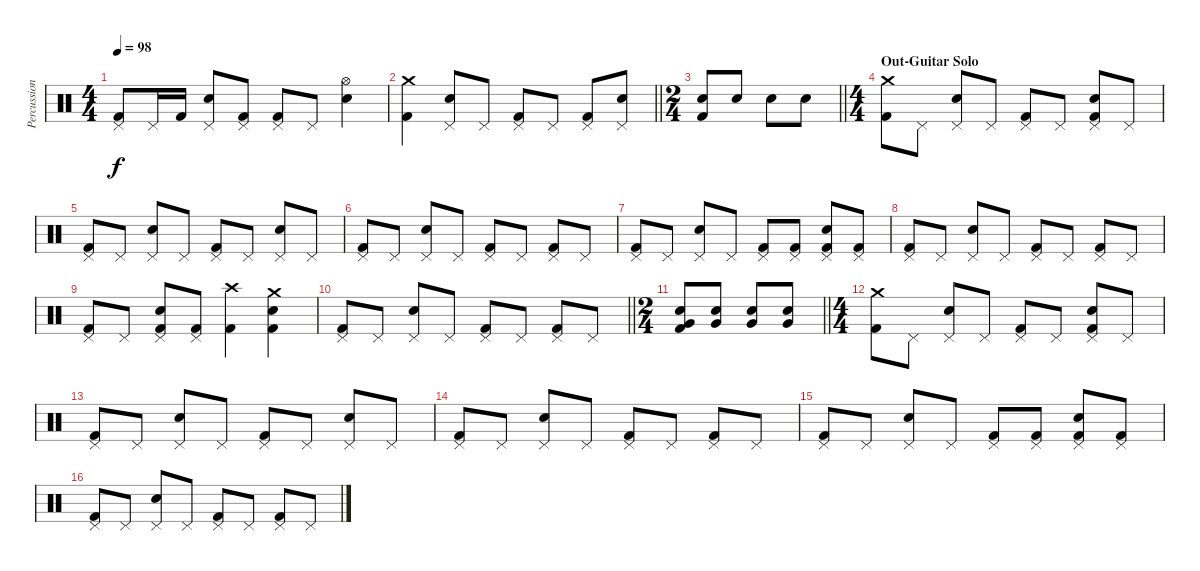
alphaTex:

\track ("Percussion" "Percussion") {instrument percussion}
\staff {score}
\articulation defaults
\ts (4 4)
\tempo 98
\clef neutral
\ks c
("Pedal Hi-Hat (hit)" "Kick (hit) 2").8{dy f} "Pedal Hi-Hat (hit)".16 "Kick (hit) 2".16 ("Pedal Hi-Hat (hit)" "Snare (hit) 2").8 ("Pedal Hi-Hat (hit)" "Kick (hit) 2").8 ("Pedal Hi-Hat (hit)" "Kick (hit) 2").8 "Pedal Hi-Hat (hit)".8 ("Hi-Hat (open)" "Snare (hit) 2").4 |
\barLineRight lightlight
("Crash medium (hit)" "Kick (hit) 2").4 ("Pedal Hi-Hat (hit)" "Snare (hit) 2").8 "Pedal Hi-Hat (hit)".8 ("Pedal Hi-Hat (hit)" "Kick (hit) 2").8 "Pedal Hi-Hat (hit)".8 ("Pedal Hi-Hat (hit)" "Kick (hit) 2").8 ("Pedal Hi-Hat (hit)" "Snare (hit) 2").8 |
\ts (2 4)
\barLineRight lightlight
("Snare (hit) 2" "Kick (hit) 2").8 "Snare (hit) 2".8 "Snare (hit) 2".8 "Snare (hit) 2".8 |
\ts (4 4)
\section ("" "Out-Guitar Solo")
("Crash medium (hit)" "Kick (hit) 2").8 "Pedal Hi-Hat (hit)".8 ("Pedal Hi-Hat (hit)" "Snare (hit) 2").8 "Pedal Hi-Hat (hit)".8 ("Pedal Hi-Hat (hit)" "Kick (hit) 2").8 "Pedal Hi-Hat (hit)".8 ("Pedal Hi-Hat (hit)" "Snare (hit) 2" "Kick (hit) 2").8 "Pedal Hi-Hat (hit)".8 |
("Pedal Hi-Hat (hit)" "Kick (hit) 2").8 "Pedal Hi-Hat (hit)".8 ("Pedal Hi-Hat (hit)" "Snare (hit) 2").8 "Pedal Hi-Hat (hit)".8 ("Pedal Hi-Hat (hit)" "Kick (hit) 2").8 "Pedal Hi-Hat (hit)".8 ("Pedal Hi-Hat (hit)" "Snare (hit) 2").8 "Pedal Hi-Hat (hit)".8 |
("Pedal Hi-Hat (hit)" "Kick (hit) 2").8 "Pedal Hi-Hat (hit)".8 ("Pedal Hi-Hat (hit)" "Snare (hit) 2").8 "Pedal Hi-Hat (hit)".8 ("Pedal Hi-Hat (hit)" "Kick (hit) 2").8 "Pedal Hi-Hat (hit)".8 ("Pedal Hi-Hat (hit)" "Kick (hit) 2").8 "Pedal Hi-Hat (hit)".8 |
("Pedal Hi-Hat (hit)" "Kick (hit) 2").8 "Pedal Hi-Hat (hit)".8 ("Pedal Hi-Hat (hit)" "Snare (hit) 2").8 "Pedal Hi-Hat (hit)".8 ("Pedal Hi-Hat (hit)" "Kick (hit) 2").8 ("Pedal Hi-Hat (hit)" "Kick (hit) 2").8 ("Pedal Hi-Hat (hit)" "Snare (hit) 2" "Kick (hit) 2").8 ("Pedal Hi-Hat (hit)" "Kick (hit) 2").8 |
("Pedal Hi-Hat (hit)" "Kick (hit) 2").8 "Pedal Hi-Hat (hit)".8 ("Pedal Hi-Hat (hit)" "Snare (hit) 2").8 "Pedal Hi-Hat (hit)".8 ("Pedal Hi-Hat (hit)" "Kick (hit) 2").8 "Pedal Hi-Hat (hit)".8 ("Pedal Hi-Hat (hit)" "Kick (hit) 2").8 "Pedal Hi-Hat (hit)".8 |
("Pedal Hi-Hat (hit)" "Kick (hit) 2").8 "Pedal Hi-Hat (hit)".8 ("Pedal Hi-Hat (hit)" "Snare (hit) 2" "Kick (hit) 2").8 ("Pedal Hi-Hat (hit)" "Kick (hit) 2").8 ("Crash high (hit)" "Kick (hit) 2").4 ("Crash medium (hit)" "Snare (hit) 2" "Kick (hit) 2").4 |
\barLineRight lightlight
("Pedal Hi-Hat (hit)" "Kick (hit) 2").8 "Pedal Hi-Hat (hit)".8 ("Pedal Hi-Hat (hit)" "Snare (hit) 2").8 "Pedal Hi-Hat (hit)".8 ("Pedal Hi-Hat (hit)" "Kick (hit) 2").8 "Pedal Hi-Hat (hit)".8 ("Pedal Hi-Hat (hit)" "Kick (hit) 2").8 "Pedal Hi-Hat (hit)".8 |
\ts (2 4)
\barLineRight lightlight
("Very Low Tom (hit)" "Snare (hit) 2" "Kick (hit) 2").8 ("Very Low Tom (hit)" "Snare (hit) 2").8 ("Very Low Tom (hit)" "Snare (hit) 2").8 ("Very Low Tom (hit)" "Snare (hit) 2").8 |
\ts (4 4)
("Crash medium (hit)" "Kick (hit) 2").8 "Pedal Hi-Hat (hit)".8 ("Pedal Hi-Hat (hit)" "Snare (hit) 2").8 "Pedal Hi-Hat (hit)".8 ("Pedal Hi-Hat (hit)" "Kick (hit) 2").8 "Pedal Hi-Hat (hit)".8 ("Pedal Hi-Hat (hit)" "Snare (hit) 2" "Kick (hit) 2").8 "Pedal Hi-Hat (hit)".8 |
("Pedal Hi-Hat (hit)" "Kick (hit) 2").8 "Pedal Hi-Hat (hit)".8 ("Pedal Hi-Hat (hit)" "Snare (hit) 2").8 "Pedal Hi-Hat (hit)".8 ("Pedal Hi-Hat (hit)" "Kick (hit) 2").8 "Pedal Hi-Hat (hit)".8 ("Pedal Hi-Hat (hit)" "Snare (hit) 2").8 "Pedal Hi-Hat (hit)".8 |
("Pedal Hi-Hat (hit)" "Kick (hit) 2").8 "Pedal Hi-Hat (hit)".8 ("Pedal Hi-Hat (hit)" "Snare (hit) 2").8 "Pedal Hi-Hat (hit)".8 ("Pedal Hi-Hat (hit)" "Kick (hit) 2").8 "Pedal Hi-Hat (hit)".8 ("Pedal Hi-Hat (hit)" "Kick (hit) 2").8 "Pedal Hi-Hat (hit)".8 |
("Pedal Hi-Hat (hit)" "Kick (hit) 2").8 "Pedal Hi-Hat (hit)".8 ("Pedal Hi-Hat (hit)" "Snare (hit) 2").8 "Pedal Hi-Hat (hit)".8 ("Pedal Hi-Hat (hit)" "Kick (hit) 2").8 ("Pedal Hi-Hat (hit)" "Kick (hit) 2").8 ("Pedal Hi-Hat (hit)" "Snare (hit) 2" "Kick (hit) 2").8 ("Pedal Hi-Hat (hit)" "Kick (hit) 2").8 |
("Pedal Hi-Hat (hit)" "Kick (hit) 2").8 "Pedal Hi-Hat (hit)".8 ("Pedal Hi-Hat (hit)" "Snare (hit) 2").8 "Pedal Hi-Hat (hit)".8 ("Pedal Hi-Hat (hit)" "Kick (hit) 2").8 "Pedal Hi-Hat (hit)".8 ("Pedal Hi-Hat (hit)" "Kick (hit) 2").8 "Pedal Hi-Hat (hit)".8
